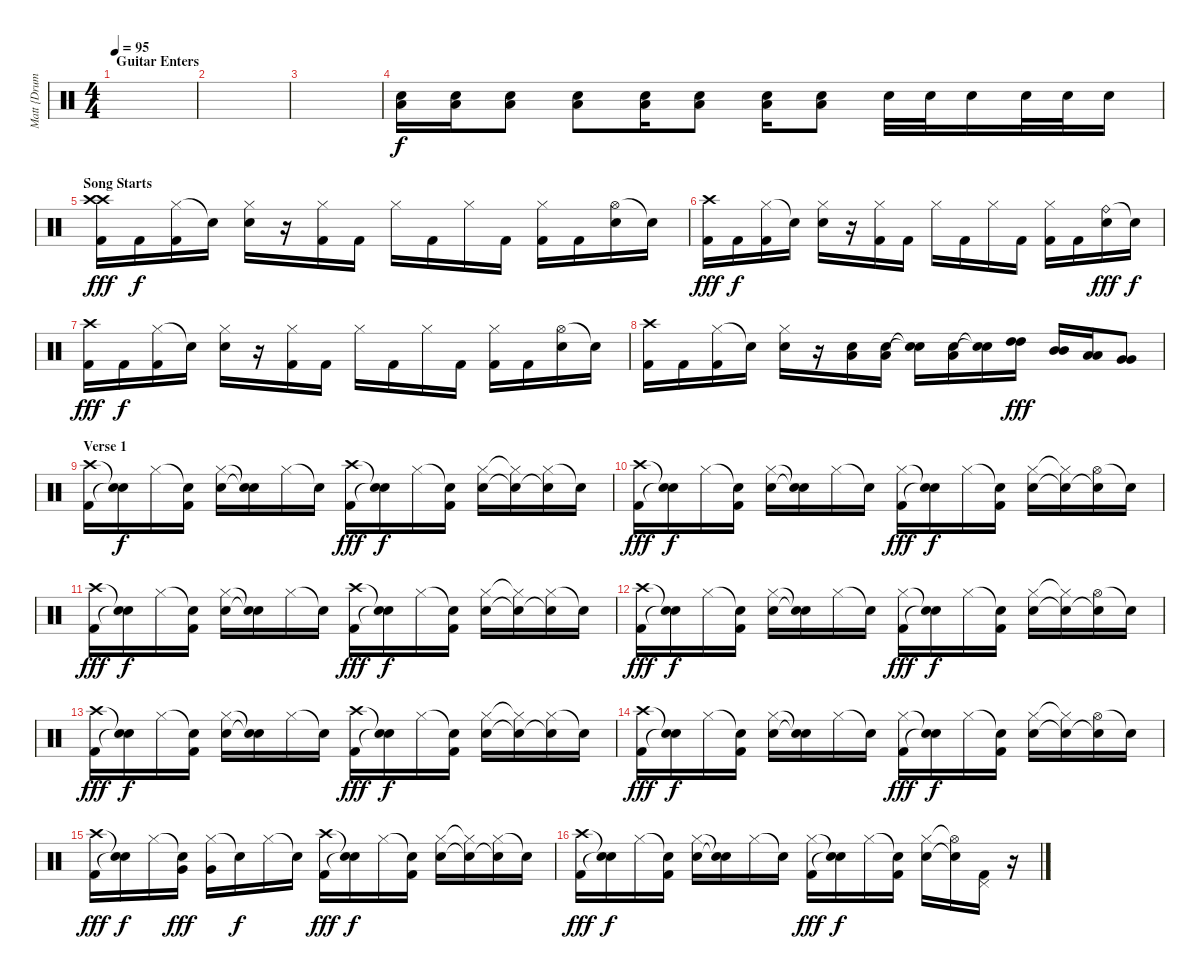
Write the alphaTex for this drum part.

\track ("Matt {Drums}" "Matt {Drum") {instrument percussion}
\staff {score}
\articulation defaults
\ts (4 4)
\section ("" "Guitar Enters")
\tempo 95
\clef neutral
\ks c
|
|
|
("Low Tom (hit)" "Electric Snare (hit)").16 ("Low Tom (hit)" "Electric Snare (hit)").16 ("Low Tom (hit)" "Electric Snare (hit)").8 ("Low Tom (hit)" "Electric Snare (hit)").8 ("Low Tom (hit)" "Electric Snare (hit)").16 ("Low Tom (hit)" "Electric Snare (hit)").8 ("Low Tom (hit)" "Electric Snare (hit)").16 ("Low Tom (hit)" "Electric Snare (hit)").8 "Electric Snare (hit)".32 "Electric Snare (hit)".32 "Electric Snare (hit)".16 "Electric Snare (hit)".32 "Electric Snare (hit)".32 "Electric Snare (hit)".16 |
\section ("" "Song Starts")
("Crash high (hit)" "Crash high (hit)" "Kick (hit) 2").16{dy fff} "Kick (hit) 2".16{dy f} ("Hi-Hat (closed)" "Kick (hit) 2").16 "Electric Snare (hit)"{t}.16 ("Hi-Hat (closed)" "Electric Snare (hit)").16 r.16 ("Hi-Hat (closed)" "Kick (hit) 2").16 "Kick (hit) 2".16 "Hi-Hat (closed)".16 "Kick (hit) 2".16 "Hi-Hat (closed)".16 "Kick (hit) 2".16 ("Hi-Hat (closed)" "Kick (hit) 2").16 "Kick (hit) 2".16 ("Hi-Hat (open)" "Electric Snare (hit)").16 "Snare (hit)"{t}.16 |
("Crash high (hit)" "Kick (hit) 2").16{dy fff} "Kick (hit) 2".16{dy f} ("Hi-Hat (closed)" "Kick (hit) 2").16 "Electric Snare (hit)"{t}.16 ("Hi-Hat (closed)" "Electric Snare (hit)").16 r.16 ("Hi-Hat (closed)" "Kick (hit) 2").16 "Kick (hit) 2".16 "Hi-Hat (closed)".16 "Kick (hit) 2".16 "Hi-Hat (closed)".16 "Kick (hit) 2".16 ("Hi-Hat (closed)" "Kick (hit) 2").16 "Kick (hit) 2".16 ("Ride (bell)" "Electric Snare (hit)").16{dy fff} "Snare (hit)"{t}.16{dy f} |
("Crash high (hit)" "Kick (hit) 2").16{dy fff} "Kick (hit) 2".16{dy f} ("Hi-Hat (closed)" "Kick (hit) 2").16 "Electric Snare (hit)"{t}.16 ("Hi-Hat (closed)" "Electric Snare (hit)").16 r.16 ("Hi-Hat (closed)" "Kick (hit) 2").16 "Kick (hit) 2".16 "Hi-Hat (closed)".16 "Kick (hit) 2".16 "Hi-Hat (closed)".16 "Kick (hit) 2".16 ("Hi-Hat (closed)" "Kick (hit) 2").16 "Kick (hit) 2".16 ("Hi-Hat (open)" "Electric Snare (hit)").16 "Snare (hit)"{t}.16 |
("Crash high (hit)" "Kick (hit) 2").16 "Kick (hit) 2".16 ("Hi-Hat (closed)" "Kick (hit) 2").16 "Snare (hit)"{t}.16 ("Hi-Hat (closed)" "Electric Snare (hit)").16 r.16 ("Low Tom (hit)" "Electric Snare (hit)").16 ("Low Tom (hit)" "Electric Snare (hit)").16 ("Snare (hit)"{t} "Snare (hit)"{t}).16 ("Low Tom (hit)" "Electric Snare (hit)").16 ("Snare (hit)"{t} "Snare (hit)"{t}).16 ("High Tom (hit)" "High Tom (hit)").16{dy fff} ("Mid Tom (hit)" "Mid Tom (hit)").16 ("Low Tom (hit)" "Low Tom (hit)").16 ("Very Low Tom (hit)" "Very Low Tom (hit)").8 |
\section ("" "Verse 1")
("Crash high (hit)" "Kick (hit) 2").16 ("Snare (hit)"{t} "Snare (hit)"{t}).16{dy f} "Hi-Hat (closed)".16 ("Snare (hit)"{t} "Kick (hit) 2").16 ("Hi-Hat (closed)" "Electric Snare (hit)").16 ("Snare (hit)"{t} "Snare (hit)"{t}).16 "Hi-Hat (closed)".16 "Snare (hit)"{t}.16 ("Crash high (hit)" "Kick (hit) 2").16{dy fff} ("Snare (hit)"{t} "Snare (hit)"{t}).16{dy f} "Hi-Hat (closed)".16 ("Snare (hit)"{t} "Kick (hit) 2").16 ("Hi-Hat (closed)" "Electric Snare (hit)").16 ("Hi-Hat (closed)"{t} "Snare (hit)"{t}).16 ("Hi-Hat (closed)" "Snare (hit)"{t}).16 "Snare (hit)"{t}.16 |
("Crash high (hit)" "Kick (hit) 2").16{dy fff} ("Snare (hit)"{t} "Snare (hit)"{t}).16{dy f} "Hi-Hat (closed)".16 ("Snare (hit)"{t} "Kick (hit) 2").16 ("Hi-Hat (closed)" "Electric Snare (hit)").16 ("Snare (hit)"{t} "Snare (hit)"{t}).16 "Hi-Hat (closed)".16 "Snare (hit)"{t}.16 ("Hi-Hat (closed)" "Kick (hit) 2").16{dy fff} ("Snare (hit)"{t} "Snare (hit)"{t}).16{dy f} "Hi-Hat (closed)".16 ("Snare (hit)"{t} "Kick (hit) 2").16 ("Hi-Hat (closed)" "Electric Snare (hit)").16 ("Hi-Hat (closed)"{t} "Snare (hit)"{t}).16 ("Hi-Hat (open)" "Snare (hit)"{t}).16 "Snare (hit)"{t}.16 |
("Crash high (hit)" "Kick (hit) 2").16{dy fff} ("Snare (hit)"{t} "Snare (hit)"{t}).16{dy f} "Hi-Hat (closed)".16 ("Snare (hit)"{t} "Kick (hit) 2").16 ("Hi-Hat (closed)" "Electric Snare (hit)").16 ("Snare (hit)"{t} "Snare (hit)"{t}).16 "Hi-Hat (closed)".16 "Snare (hit)"{t}.16 ("Crash high (hit)" "Kick (hit) 2").16{dy fff} ("Snare (hit)"{t} "Snare (hit)"{t}).16{dy f} "Hi-Hat (closed)".16 ("Snare (hit)"{t} "Kick (hit) 2").16 ("Hi-Hat (closed)" "Electric Snare (hit)").16 ("Hi-Hat (closed)"{t} "Snare (hit)"{t}).16 ("Hi-Hat (closed)" "Snare (hit)"{t}).16 "Snare (hit)"{t}.16 |
("Crash high (hit)" "Kick (hit) 2").16{dy fff} ("Snare (hit)"{t} "Snare (hit)"{t}).16{dy f} "Hi-Hat (closed)".16 ("Snare (hit)"{t} "Kick (hit) 2").16 ("Hi-Hat (closed)" "Electric Snare (hit)").16 ("Snare (hit)"{t} "Snare (hit)"{t}).16 "Hi-Hat (closed)".16 "Snare (hit)"{t}.16 ("Hi-Hat (closed)" "Kick (hit) 2").16{dy fff} ("Snare (hit)"{t} "Snare (hit)"{t}).16{dy f} "Hi-Hat (closed)".16 ("Snare (hit)"{t} "Kick (hit) 2").16 ("Hi-Hat (closed)" "Electric Snare (hit)").16 ("Hi-Hat (closed)"{t} "Snare (hit)"{t}).16 ("Hi-Hat (open)" "Snare (hit)"{t}).16 "Snare (hit)"{t}.16 |
("Crash high (hit)" "Kick (hit) 2").16{dy fff} ("Snare (hit)"{t} "Snare (hit)"{t}).16{dy f} "Hi-Hat (closed)".16 ("Snare (hit)"{t} "Kick (hit) 2").16 ("Hi-Hat (closed)" "Electric Snare (hit)").16 ("Snare (hit)"{t} "Snare (hit)"{t}).16 "Hi-Hat (closed)".16 "Snare (hit)"{t}.16 ("Crash high (hit)" "Kick (hit) 2").16{dy fff} ("Snare (hit)"{t} "Snare (hit)"{t}).16{dy f} "Hi-Hat (closed)".16 ("Snare (hit)"{t} "Kick (hit) 2").16 ("Hi-Hat (closed)" "Electric Snare (hit)").16 ("Hi-Hat (closed)"{t} "Snare (hit)"{t}).16 ("Hi-Hat (closed)" "Snare (hit)"{t}).16 "Snare (hit)"{t}.16 |
("Crash high (hit)" "Kick (hit) 2").16{dy fff} ("Snare (hit)"{t} "Snare (hit)"{t}).16{dy f} "Hi-Hat (closed)".16 ("Snare (hit)"{t} "Kick (hit) 2").16 ("Hi-Hat (closed)" "Electric Snare (hit)").16 ("Snare (hit)"{t} "Snare (hit)"{t}).16 "Hi-Hat (closed)".16 "Snare (hit)"{t}.16 ("Hi-Hat (closed)" "Kick (hit) 2").16{dy fff} ("Snare (hit)"{t} "Snare (hit)"{t}).16{dy f} "Hi-Hat (closed)".16 ("Snare (hit)"{t} "Kick (hit) 2").16 ("Hi-Hat (closed)" "Electric Snare (hit)").16 ("Hi-Hat (closed)"{t} "Snare (hit)"{t}).16 ("Hi-Hat (open)" "Snare (hit)"{t}).16 "Snare (hit)"{t}.16 |
("Crash high (hit)" "Kick (hit) 2").16{dy fff} ("Snare (hit)"{t} "Snare (hit)"{t}).16{dy f} "Hi-Hat (closed)".16 ("Snare (hit)"{t} "Very Low Tom (hit)").16{dy fff} ("Hi-Hat (closed)" "Very Low Tom (hit)").16 "Snare (hit)"{t}.16{dy f} "Hi-Hat (closed)".16 "Snare (hit)"{t}.16 ("Crash high (hit)" "Kick (hit) 2").16{dy fff} ("Snare (hit)"{t} "Snare (hit)"{t}).16{dy f} "Hi-Hat (closed)".16 ("Snare (hit)"{t} "Kick (hit) 2").16 ("Hi-Hat (closed)" "Electric Snare (hit)").16 ("Hi-Hat (closed)"{t} "Snare (hit)"{t}).16 ("Hi-Hat (closed)" "Snare (hit)"{t}).16 "Snare (hit)"{t}.16 |
("Crash high (hit)" "Kick (hit) 2").16{dy fff} ("Snare (hit)"{t} "Snare (hit)"{t}).16{dy f} "Hi-Hat (closed)".16 ("Snare (hit)"{t} "Kick (hit) 2").16 ("Hi-Hat (closed)" "Electric Snare (hit)").16 ("Snare (hit)"{t} "Snare (hit)"{t}).16 "Hi-Hat (closed)".16 "Snare (hit)"{t}.16 ("Hi-Hat (closed)" "Kick (hit) 2").16{dy fff} ("Snare (hit)"{t} "Snare (hit)"{t}).16{dy f} "Hi-Hat (closed)".16 ("Snare (hit)"{t} "Kick (hit) 2").16 ("Hi-Hat (closed)" "Electric Snare (hit)").16 ("Hi-Hat (open)"{t} "Snare (hit)"{t}).16 ("Pedal Hi-Hat (hit)" "Kick (hit) 2").16 r.16
